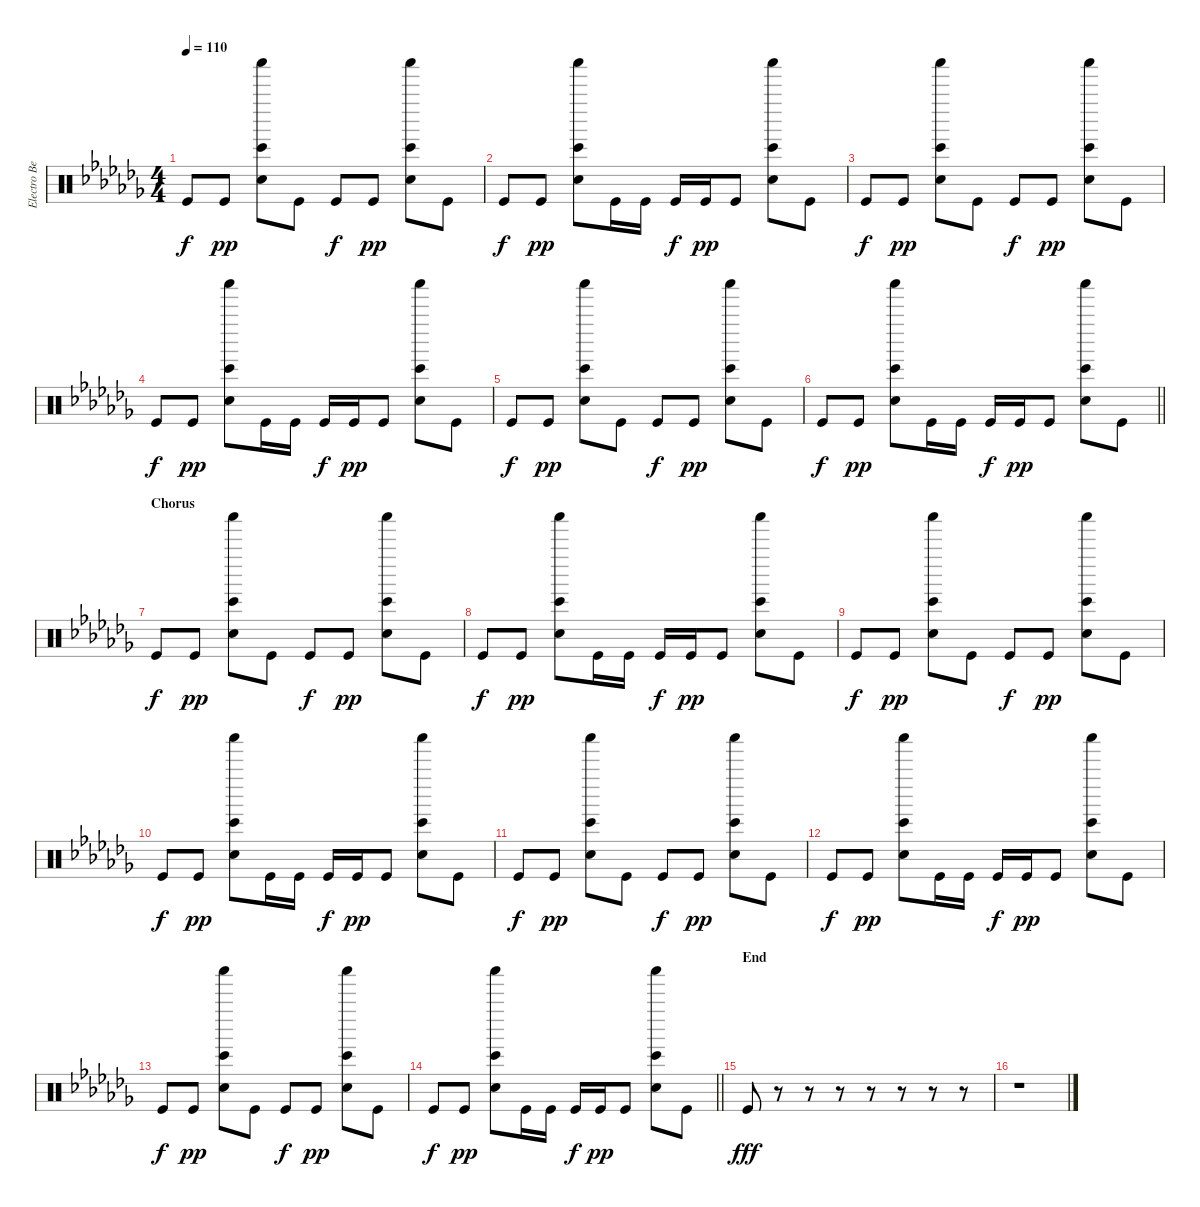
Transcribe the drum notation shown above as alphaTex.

\track ("Electro Beat - Joe Hahn" "Electro Be") {instrument percussion}
\staff {score}
\articulation defaults
\ts (4 4)
\tempo 110
\clef neutral
\ks abminor "Kick (hit)".8{dy f} "Kick (hit)".8{dy pp}
("Snare (hit) 2" "Bongo High (hit)" "Shaker (hit)").8 "Kick (hit)".8 "Kick (hit)".8{dy f} "Kick (hit)".8{dy pp} ("Snare (hit) 2" "Bongo High (hit)" "Shaker (hit)").8 "Kick (hit)".8 |
"Kick (hit)".8{dy f} "Kick (hit)".8{dy pp} ("Snare (hit) 2" "Bongo High (hit)" "Shaker (hit)").8 "Kick (hit)".16 "Kick (hit)".16 "Kick (hit)".16{dy f} "Kick (hit)".16{dy pp} "Kick (hit)".8 ("Snare (hit) 2" "Bongo High (hit)" "Shaker (hit)").8 "Kick (hit)".8 |
"Kick (hit)".8{dy f} "Kick (hit)".8{dy pp} ("Snare (hit) 2" "Bongo High (hit)" "Shaker (hit)").8 "Kick (hit)".8 "Kick (hit)".8{dy f} "Kick (hit)".8{dy pp} ("Snare (hit) 2" "Bongo High (hit)" "Shaker (hit)").8 "Kick (hit)".8 |
"Kick (hit)".8{dy f} "Kick (hit)".8{dy pp} ("Snare (hit) 2" "Bongo High (hit)" "Shaker (hit)").8 "Kick (hit)".16 "Kick (hit)".16 "Kick (hit)".16{dy f} "Kick (hit)".16{dy pp} "Kick (hit)".8 ("Snare (hit) 2" "Bongo High (hit)" "Shaker (hit)").8 "Kick (hit)".8 |
"Kick (hit)".8{dy f} "Kick (hit)".8{dy pp} ("Snare (hit) 2" "Bongo High (hit)" "Shaker (hit)").8 "Kick (hit)".8 "Kick (hit)".8{dy f} "Kick (hit)".8{dy pp} ("Snare (hit) 2" "Bongo High (hit)" "Shaker (hit)").8 "Kick (hit)".8 |
\barLineRight lightlight "Kick (hit)".8{dy f} "Kick (hit)".8{dy pp}
("Snare (hit) 2" "Bongo High (hit)" "Shaker (hit)").8 "Kick (hit)".16 "Kick (hit)".16 "Kick (hit)".16{dy f} "Kick (hit)".16{dy pp} "Kick (hit)".8 ("Snare (hit) 2" "Bongo High (hit)" "Shaker (hit)").8 "Kick (hit)".8 |
\section ("" "Chorus")
"Kick (hit)".8{dy f} "Kick (hit)".8{dy pp} ("Snare (hit) 2" "Bongo High (hit)" "Shaker (hit)").8 "Kick (hit)".8 "Kick (hit)".8{dy f} "Kick (hit)".8{dy pp} ("Snare (hit) 2" "Bongo High (hit)" "Shaker (hit)").8 "Kick (hit)".8 |
"Kick (hit)".8{dy f} "Kick (hit)".8{dy pp} ("Snare (hit) 2" "Bongo High (hit)" "Shaker (hit)").8 "Kick (hit)".16 "Kick (hit)".16 "Kick (hit)".16{dy f} "Kick (hit)".16{dy pp} "Kick (hit)".8 ("Snare (hit) 2" "Bongo High (hit)" "Shaker (hit)").8 "Kick (hit)".8 |
"Kick (hit)".8{dy f} "Kick (hit)".8{dy pp} ("Snare (hit) 2" "Bongo High (hit)" "Shaker (hit)").8 "Kick (hit)".8 "Kick (hit)".8{dy f} "Kick (hit)".8{dy pp} ("Snare (hit) 2" "Bongo High (hit)" "Shaker (hit)").8 "Kick (hit)".8 |
"Kick (hit)".8{dy f} "Kick (hit)".8{dy pp} ("Snare (hit) 2" "Bongo High (hit)" "Shaker (hit)").8 "Kick (hit)".16 "Kick (hit)".16 "Kick (hit)".16{dy f} "Kick (hit)".16{dy pp} "Kick (hit)".8 ("Snare (hit) 2" "Bongo High (hit)" "Shaker (hit)").8 "Kick (hit)".8 |
"Kick (hit)".8{dy f} "Kick (hit)".8{dy pp} ("Snare (hit) 2" "Bongo High (hit)" "Shaker (hit)").8 "Kick (hit)".8 "Kick (hit)".8{dy f} "Kick (hit)".8{dy pp} ("Snare (hit) 2" "Bongo High (hit)" "Shaker (hit)").8 "Kick (hit)".8 |
"Kick (hit)".8{dy f} "Kick (hit)".8{dy pp} ("Snare (hit) 2" "Bongo High (hit)" "Shaker (hit)").8 "Kick (hit)".16 "Kick (hit)".16 "Kick (hit)".16{dy f} "Kick (hit)".16{dy pp} "Kick (hit)".8 ("Snare (hit) 2" "Bongo High (hit)" "Shaker (hit)").8 "Kick (hit)".8 |
"Kick (hit)".8{dy f} "Kick (hit)".8{dy pp} ("Snare (hit) 2" "Bongo High (hit)" "Shaker (hit)").8 "Kick (hit)".8 "Kick (hit)".8{dy f} "Kick (hit)".8{dy pp} ("Snare (hit) 2" "Bongo High (hit)" "Shaker (hit)").8 "Kick (hit)".8 |
\barLineRight lightlight "Kick (hit)".8{dy f} "Kick (hit)".8{dy pp}
("Snare (hit) 2" "Bongo High (hit)" "Shaker (hit)").8 "Kick (hit)".16 "Kick (hit)".16 "Kick (hit)".16{dy f} "Kick (hit)".16{dy pp} "Kick (hit)".8 ("Snare (hit) 2" "Bongo High (hit)" "Shaker (hit)").8 "Kick (hit)".8 |
\section ("" "End")
"Kick (hit)".8{dy fff} r.8 r.8 r.8 r.8 r.8 r.8 r.8 |
r.1
